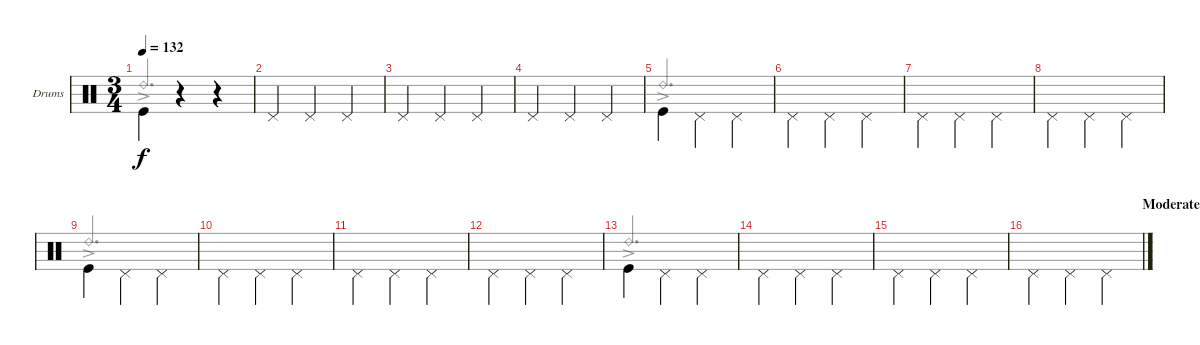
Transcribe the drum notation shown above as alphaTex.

\bracketExtendMode groupsimilarinstruments
\firstSystemTrackNameOrientation horizontal
\otherSystemsTrackNameOrientation horizontal
\track ("Drum" "Drums") {instrument percussion}
\staff {score}
\articulation defaults
\voice
\ts (3 4)
\tempo 132
\clef neutral
\scale
1.02648
\ks aminor "Kick (hit)".4{dy f beam invert}
r.4 r.4 |
\scale
0.973518 "Pedal Hi-Hat (hit)".4 "Pedal Hi-Hat (hit)".4 "Pedal Hi-Hat (hit)".4 |
\scale
1.02648 "Pedal Hi-Hat (hit)".4 "Pedal Hi-Hat (hit)".4 "Pedal Hi-Hat (hit)".4 |
\scale
0.973518 "Pedal Hi-Hat (hit)".4 "Pedal Hi-Hat (hit)".4 "Pedal Hi-Hat (hit)".4 |
\scale
1.02648 "Kick (hit)".4{beam invert} "Pedal Hi-Hat (hit)".4{beam invert} "Pedal Hi-Hat (hit)".4{beam invert} |
\scale
0.973518 "Pedal Hi-Hat (hit)".4{beam invert} "Pedal Hi-Hat (hit)".4{beam invert} "Pedal Hi-Hat (hit)".4{beam invert} |
\scale
1.02648 "Pedal Hi-Hat (hit)".4{beam invert} "Pedal Hi-Hat (hit)".4{beam invert} "Pedal Hi-Hat (hit)".4{beam invert} |
\scale
0.973518 "Pedal Hi-Hat (hit)".4{beam invert} "Pedal Hi-Hat (hit)".4{beam invert} "Pedal Hi-Hat (hit)".4{beam invert} |
\scale
1.02648 "Kick (hit)".4{beam invert} "Pedal Hi-Hat (hit)".4{beam invert} "Pedal Hi-Hat (hit)".4{beam invert} |
\scale
0.973518 "Pedal Hi-Hat (hit)".4{beam invert} "Pedal Hi-Hat (hit)".4{beam invert} "Pedal Hi-Hat (hit)".4{beam invert} |
\scale
1.05675 "Pedal Hi-Hat (hit)".4{beam invert} "Pedal Hi-Hat (hit)".4{beam invert} "Pedal Hi-Hat (hit)".4{beam invert} |
\scale
0.943253 "Pedal Hi-Hat (hit)".4{beam invert} "Pedal Hi-Hat (hit)".4{beam invert} "Pedal Hi-Hat (hit)".4{beam invert} |
\scale
1.02648 "Kick (hit)".4{beam invert} "Pedal Hi-Hat (hit)".4{beam invert} "Pedal Hi-Hat (hit)".4{beam invert} |
\scale
0.973518 "Pedal Hi-Hat (hit)".4{beam invert} "Pedal Hi-Hat (hit)".4{beam invert} "Pedal Hi-Hat (hit)".4{beam invert} |
\scale
1.02648 "Pedal Hi-Hat (hit)".4{beam invert} "Pedal Hi-Hat (hit)".4{beam invert} "Pedal Hi-Hat (hit)".4{beam invert} |
\tempo (132 "Moderately" 0.99375)
\scale
0.973518 "Pedal Hi-Hat (hit)".4{beam invert} "Pedal Hi-Hat (hit)".4{beam invert} "Pedal Hi-Hat (hit)".4{beam invert}
\voice
\clef neutral
\ottava regular
\simile none
\scale
1.02648
\ks aminor "Ride (bell) 2"{ac}.2{d dy f beam invert}
|
\scale
0.973518 |
\scale
1.02648 |
\scale
0.973518 |
\scale
1.02648 "Ride (bell) 2"{ac}.2{d beam invert} |
\scale
0.973518 |
\scale
1.02648 |
\scale
0.973518 |
\scale
1.02648 "Ride (bell) 2"{ac}.2{d beam invert} |
\scale
0.973518 |
\scale
1.05675 |
\scale
0.943253 |
\scale
1.02648 "Ride (bell) 2"{ac}.2{d beam invert} |
\scale
0.973518 |
\scale
1.02648 |
\scale
0.973518
